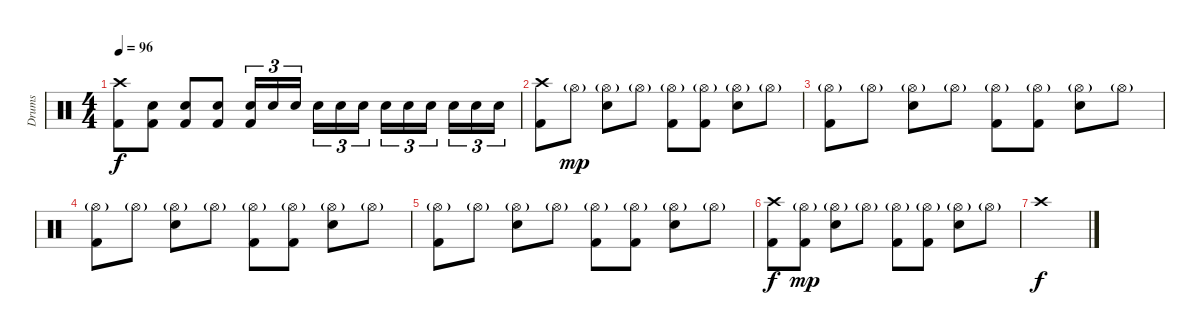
\track ("Drums" "Drums") {instrument percussion}
\staff {score}
\articulation defaults
\ts (4 4)
\tempo 96
\clef neutral
\ks c
("Crash high (hit)" "Kick (hit) 2").8{dy f} ("Electric Snare (hit)" "Kick (hit) 2").8 ("Electric Snare (hit)" "Kick (hit) 2").8 ("Electric Snare (hit)" "Kick (hit) 2").8 ("Electric Snare (hit)" "Kick (hit) 2").16{tu (3 2)} "Electric Snare (hit)".16{tu (3 2)} "Electric Snare (hit)".16{tu (3 2)} "Electric Snare (hit)".16{tu (3 2)} "Electric Snare (hit)".16{tu (3 2)} "Electric Snare (hit)".16{tu (3 2)} "Electric Snare (hit)".16{tu (3 2)} "Electric Snare (hit)".16{tu (3 2)} "Electric Snare (hit)".16{tu (3 2)} "Electric Snare (hit)".16{tu (3 2)} "Electric Snare (hit)".16{tu (3 2)} "Electric Snare (hit)".16{tu (3 2)} |
("Crash high (hit)" "Kick (hit) 2").8 "Hi-Hat (open)"{g}.8{dy mp} ("Hi-Hat (open)"{g} "Electric Snare (hit)").8 "Hi-Hat (open)"{g}.8 ("Hi-Hat (open)"{g} "Kick (hit) 2").8 ("Hi-Hat (open)"{g} "Kick (hit) 2").8 ("Hi-Hat (open)"{g} "Electric Snare (hit)").8 "Hi-Hat (open)"{g}.8 |
("Hi-Hat (open)"{g} "Kick (hit) 2").8 "Hi-Hat (open)"{g}.8 ("Hi-Hat (open)"{g} "Electric Snare (hit)").8 "Hi-Hat (open)"{g}.8 ("Hi-Hat (open)"{g} "Kick (hit) 2").8 ("Hi-Hat (open)"{g} "Kick (hit) 2").8 ("Hi-Hat (open)"{g} "Electric Snare (hit)").8 "Hi-Hat (open)"{g}.8 |
("Hi-Hat (open)"{g} "Kick (hit) 2").8 "Hi-Hat (open)"{g}.8 ("Hi-Hat (open)"{g} "Electric Snare (hit)").8 "Hi-Hat (open)"{g}.8 ("Hi-Hat (open)"{g} "Kick (hit) 2").8 ("Hi-Hat (open)"{g} "Kick (hit) 2").8 ("Hi-Hat (open)"{g} "Electric Snare (hit)").8 "Hi-Hat (open)"{g}.8 |
("Hi-Hat (open)"{g} "Kick (hit) 2").8 "Hi-Hat (open)"{g}.8 ("Hi-Hat (open)"{g} "Electric Snare (hit)").8 "Hi-Hat (open)"{g}.8 ("Hi-Hat (open)"{g} "Kick (hit) 2").8 ("Hi-Hat (open)"{g} "Kick (hit) 2").8 ("Hi-Hat (open)"{g} "Electric Snare (hit)").8 "Hi-Hat (open)"{g}.8 |
("Crash high (hit)" "Kick (hit) 2").8{dy f} ("Hi-Hat (open)"{g} "Kick (hit) 2").8{dy mp} ("Hi-Hat (open)"{g} "Electric Snare (hit)").8 "Hi-Hat (open)"{g}.8 ("Hi-Hat (open)"{g} "Kick (hit) 2").8 ("Hi-Hat (open)"{g} "Kick (hit) 2").8 ("Hi-Hat (open)"{g} "Electric Snare (hit)").8 "Hi-Hat (open)"{g}.8 |
"Crash high (hit)".1{dy f}
